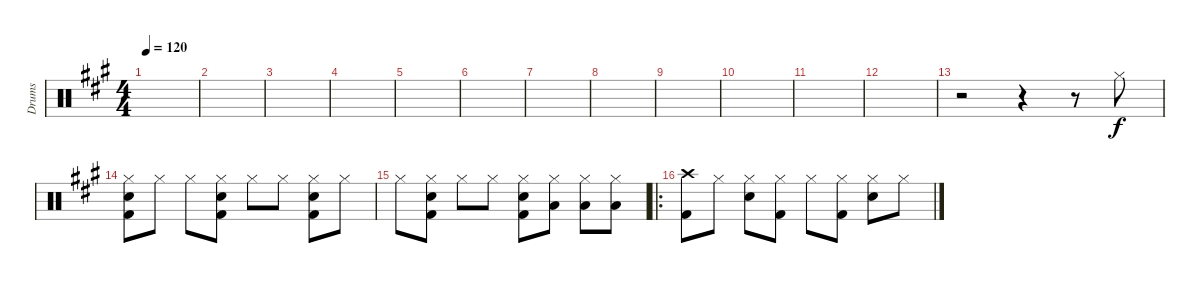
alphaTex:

\track ("Drums" "Drums") {instrument percussion}
\staff {score}
\articulation defaults
\ts (4 4)
\tempo 120
\clef neutral
\ks a
|
|
|
|
|
|
|
|
|
|
|
|
r.2 r.4 r.8 "Hi-Hat (closed)".8 |
("Hi-Hat (closed)" "Snare (hit) 2" "Kick (hit) 2").8 "Hi-Hat (closed)".8 "Hi-Hat (closed)".8 ("Hi-Hat (closed)" "Snare (hit) 2" "Kick (hit) 2").8 "Hi-Hat (closed)".8 "Hi-Hat (closed)".8 ("Hi-Hat (closed)" "Snare (hit) 2" "Kick (hit) 2").8 "Hi-Hat (closed)".8 |
"Hi-Hat (closed)".8 ("Hi-Hat (closed)" "Snare (hit) 2" "Kick (hit) 2").8 "Hi-Hat (closed)".8 "Hi-Hat (closed)".8 ("Hi-Hat (closed)" "Snare (hit) 2" "Kick (hit) 2").8 ("Hi-Hat (closed)" "Low Tom (hit)").8 ("Hi-Hat (closed)" "Low Tom (hit)").8 ("Hi-Hat (closed)" "Low Tom (hit)").8 |
\ro
("Crash high (hit)" "Kick (hit) 2").8 "Hi-Hat (closed)".8 ("Hi-Hat (closed)" "Snare (hit) 2").8 ("Hi-Hat (closed)" "Kick (hit) 2").8 "Hi-Hat (closed)".8 ("Hi-Hat (closed)" "Kick (hit) 2").8 ("Hi-Hat (closed)" "Snare (hit) 2").8 "Hi-Hat (closed)".8
